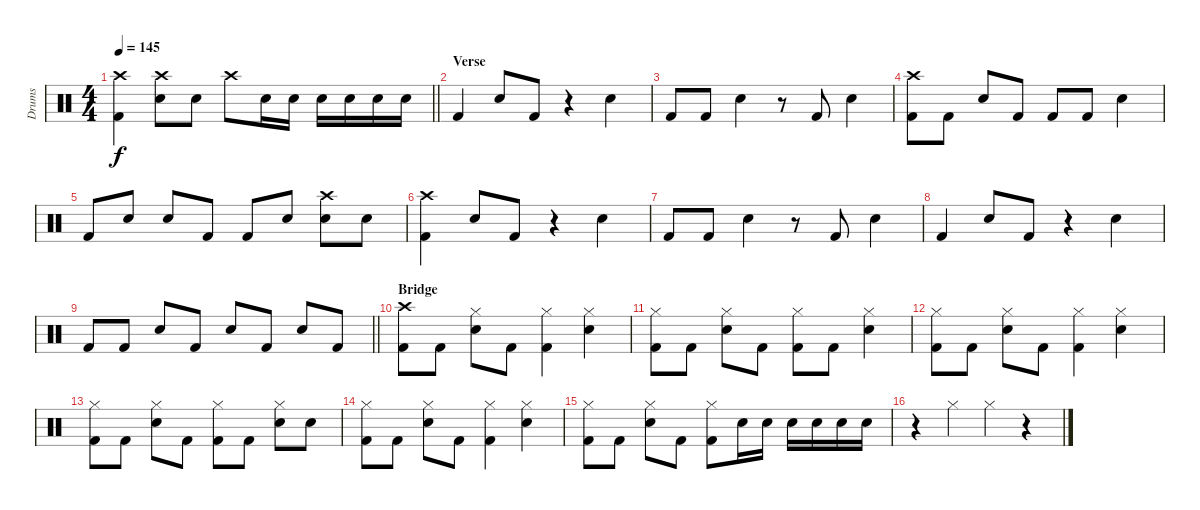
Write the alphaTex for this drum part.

\track ("Drums" "Drums") {instrument percussion}
\staff {score}
\articulation defaults
\ts (4 4)
\tempo 145
\clef neutral
\barLineRight lightlight
\ks c
("Crash high (hit)" "Kick (hit) 2").4{dy f} ("Crash high (hit)" "Electric Snare (hit)").8 "Electric Snare (hit)".8 "Crash high (hit)".8 "Electric Snare (hit)".16 "Electric Snare (hit)".16 "Electric Snare (hit)".16 "Electric Snare (hit)".16 "Electric Snare (hit)".16 "Electric Snare (hit)".16 |
\section ("" "Verse")
"Kick (hit) 2".4 "Electric Snare (hit)".8 "Kick (hit) 2".8 r.4 "Electric Snare (hit)".4 |
"Kick (hit) 2".8 "Kick (hit) 2".8 "Electric Snare (hit)".4 r.8 "Kick (hit) 2".8 "Electric Snare (hit)".4 |
("Crash high (hit)" "Kick (hit) 2").8 "Kick (hit) 2".8 "Electric Snare (hit)".8 "Kick (hit) 2".8 "Kick (hit) 2".8 "Kick (hit) 2".8 "Electric Snare (hit)".4 |
"Kick (hit) 2".8 "Electric Snare (hit)".8 "Electric Snare (hit)".8 "Kick (hit) 2".8 "Kick (hit) 2".8 "Electric Snare (hit)".8 ("Crash high (hit)" "Electric Snare (hit)").8 "Electric Snare (hit)".8 |
("Crash high (hit)" "Kick (hit) 2").4 "Electric Snare (hit)".8 "Kick (hit) 2".8 r.4 "Electric Snare (hit)".4 |
"Kick (hit) 2".8 "Kick (hit) 2".8 "Electric Snare (hit)".4 r.8 "Kick (hit) 2".8 "Electric Snare (hit)".4 |
"Kick (hit) 2".4 "Electric Snare (hit)".8 "Kick (hit) 2".8 r.4 "Electric Snare (hit)".4 |
\barLineRight lightlight "Kick (hit) 2".8 "Kick (hit) 2".8 "Electric Snare (hit)".8 "Kick (hit) 2".8 "Electric Snare (hit)".8 "Kick (hit) 2".8 "Electric Snare (hit)".8 "Kick (hit) 2".8
|
\section ("" "Bridge")
("Crash high (hit)" "Kick (hit) 2").8 "Kick (hit) 2".8 ("Hi-Hat (closed)" "Electric Snare (hit)").8 "Kick (hit) 2".8 ("Hi-Hat (closed)" "Kick (hit) 2").4 ("Hi-Hat (closed)" "Electric Snare (hit)").4 |
("Hi-Hat (closed)" "Kick (hit) 2").8 "Kick (hit) 2".8 ("Hi-Hat (closed)" "Electric Snare (hit)").8 "Kick (hit) 2".8 ("Hi-Hat (closed)" "Kick (hit) 2").8 "Kick (hit) 2".8 ("Hi-Hat (closed)" "Electric Snare (hit)").4 |
("Hi-Hat (closed)" "Kick (hit) 2").8 "Kick (hit) 2".8 ("Hi-Hat (closed)" "Electric Snare (hit)").8 "Kick (hit) 2".8 ("Hi-Hat (closed)" "Kick (hit) 2").4 ("Hi-Hat (closed)" "Electric Snare (hit)").4 |
("Hi-Hat (closed)" "Kick (hit) 2").8 "Kick (hit) 2".8 ("Hi-Hat (closed)" "Electric Snare (hit)").8 "Kick (hit) 2".8 ("Hi-Hat (closed)" "Kick (hit) 2").8 "Kick (hit) 2".8 ("Hi-Hat (closed)" "Electric Snare (hit)").8 "Electric Snare (hit)".8 |
("Hi-Hat (closed)" "Kick (hit) 2").8 "Kick (hit) 2".8 ("Hi-Hat (closed)" "Electric Snare (hit)").8 "Kick (hit) 2".8 ("Hi-Hat (closed)" "Kick (hit) 2").4 ("Hi-Hat (closed)" "Electric Snare (hit)").4 |
("Hi-Hat (closed)" "Kick (hit) 2").8 "Kick (hit) 2".8 ("Hi-Hat (closed)" "Electric Snare (hit)").8 "Kick (hit) 2".8 ("Hi-Hat (closed)" "Kick (hit) 2").8 "Electric Snare (hit)".16 "Electric Snare (hit)".16 "Electric Snare (hit)".16 "Electric Snare (hit)".16 "Electric Snare (hit)".16 "Electric Snare (hit)".16 |
r.4 "Hi-Hat (closed)".4 "Hi-Hat (closed)".4 r.4
